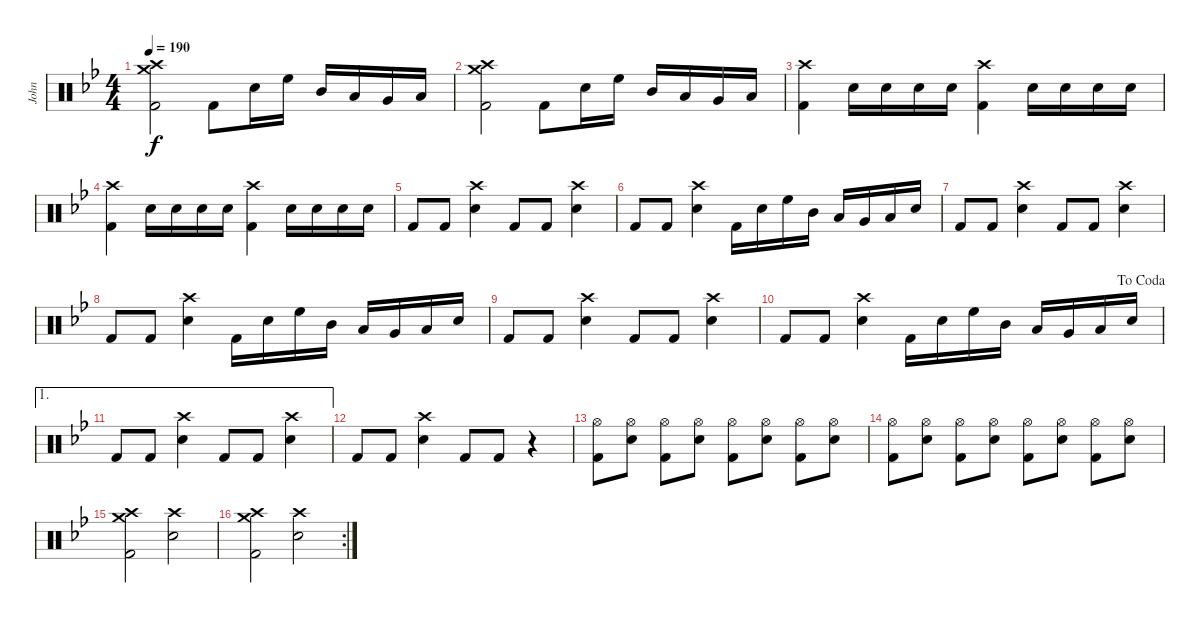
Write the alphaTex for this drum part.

\track ("John" "John") {instrument percussion}
\staff {score}
\articulation defaults
\ts (4 4)
\tempo 190
\clef neutral
\ks bb
("Crash high (hit)" "Crash medium (hit)" "Kick (hit) 2").2{dy f} "Kick (hit) 2".8 "Electric Snare (hit)".16 "High Floor Tom (hit)".16 "Mid Tom (hit)".16 "Low Tom (hit)".16 "Very Low Tom (hit)".16 "Low Floor Tom (hit)".16 |
("Crash high (hit)" "Crash medium (hit)" "Kick (hit) 2").2 "Kick (hit) 2".8 "Electric Snare (hit)".16 "High Floor Tom (hit)".16 "Mid Tom (hit)".16 "Low Tom (hit)".16 "Very Low Tom (hit)".16 "Low Floor Tom (hit)".16 |
("Crash high (hit)" "Kick (hit) 2").4 "Electric Snare (hit)".16 "Electric Snare (hit)".16 "Electric Snare (hit)".16 "Electric Snare (hit)".16 ("Crash high (hit)" "Kick (hit) 2").4 "Electric Snare (hit)".16 "Electric Snare (hit)".16 "Electric Snare (hit)".16 "Electric Snare (hit)".16 |
("Crash high (hit)" "Kick (hit) 2").4 "Electric Snare (hit)".16 "Electric Snare (hit)".16 "Electric Snare (hit)".16 "Electric Snare (hit)".16 ("Crash high (hit)" "Kick (hit) 2").4 "Electric Snare (hit)".16 "Electric Snare (hit)".16 "Electric Snare (hit)".16 "Electric Snare (hit)".16 |
"Kick (hit) 2".8 "Kick (hit) 2".8 ("Crash high (hit)" "Electric Snare (hit)").4 "Kick (hit) 2".8 "Kick (hit) 2".8 ("Crash high (hit)" "Electric Snare (hit)").4 |
"Kick (hit) 2".8 "Kick (hit) 2".8 ("Crash high (hit)" "Electric Snare (hit)").4 "Kick (hit) 2".16 "Electric Snare (hit)".16 "High Floor Tom (hit)".16 "Mid Tom (hit)".16 "Low Tom (hit)".16 "Very Low Tom (hit)".16 "Low Floor Tom (hit)".16 "Electric Snare (hit)".16 |
"Kick (hit) 2".8 "Kick (hit) 2".8 ("Crash high (hit)" "Electric Snare (hit)").4 "Kick (hit) 2".8 "Kick (hit) 2".8 ("Crash high (hit)" "Electric Snare (hit)").4 |
"Kick (hit) 2".8 "Kick (hit) 2".8 ("Crash high (hit)" "Electric Snare (hit)").4 "Kick (hit) 2".16 "Electric Snare (hit)".16 "High Floor Tom (hit)".16 "Mid Tom (hit)".16 "Low Tom (hit)".16 "Very Low Tom (hit)".16 "Low Floor Tom (hit)".16 "Electric Snare (hit)".16 |
"Kick (hit) 2".8 "Kick (hit) 2".8 ("Crash high (hit)" "Electric Snare (hit)").4 "Kick (hit) 2".8 "Kick (hit) 2".8 ("Crash high (hit)" "Electric Snare (hit)").4 |
\jump dacoda "Kick (hit) 2".8 "Kick (hit) 2".8
("Crash high (hit)" "Electric Snare (hit)").4 "Kick (hit) 2".16 "Electric Snare (hit)".16 "High Floor Tom (hit)".16 "Mid Tom (hit)".16 "Low Tom (hit)".16 "Very Low Tom (hit)".16 "Low Floor Tom (hit)".16 "Electric Snare (hit)".16 |
\ae 1 "Kick (hit) 2".8 "Kick (hit) 2".8
("Crash high (hit)" "Electric Snare (hit)").4 "Kick (hit) 2".8 "Kick (hit) 2".8 ("Crash high (hit)" "Electric Snare (hit)").4 |
"Kick (hit) 2".8 "Kick (hit) 2".8 ("Crash high (hit)" "Electric Snare (hit)").4 "Kick (hit) 2".8 "Kick (hit) 2".8 r.4 |
("Hi-Hat (open)" "Kick (hit) 2").8 ("Hi-Hat (open)" "Electric Snare (hit)").8 ("Hi-Hat (open)" "Kick (hit) 2").8 ("Hi-Hat (open)" "Electric Snare (hit)").8 ("Hi-Hat (open)" "Kick (hit) 2").8 ("Hi-Hat (open)" "Electric Snare (hit)").8 ("Hi-Hat (open)" "Kick (hit) 2").8 ("Hi-Hat (open)" "Electric Snare (hit)").8 |
("Hi-Hat (open)" "Kick (hit) 2").8 ("Hi-Hat (open)" "Electric Snare (hit)").8 ("Hi-Hat (open)" "Kick (hit) 2").8 ("Hi-Hat (open)" "Electric Snare (hit)").8 ("Hi-Hat (open)" "Kick (hit) 2").8 ("Hi-Hat (open)" "Electric Snare (hit)").8 ("Hi-Hat (open)" "Kick (hit) 2").8 ("Hi-Hat (open)" "Electric Snare (hit)").8 |
("Crash medium (hit)" "Crash high (hit)" "Kick (hit) 2").2 ("Crash high (hit)" "Electric Snare (hit)").2 |
\rc 2
("Crash medium (hit)" "Crash high (hit)" "Kick (hit) 2").2 ("Crash high (hit)" "Electric Snare (hit)").2
